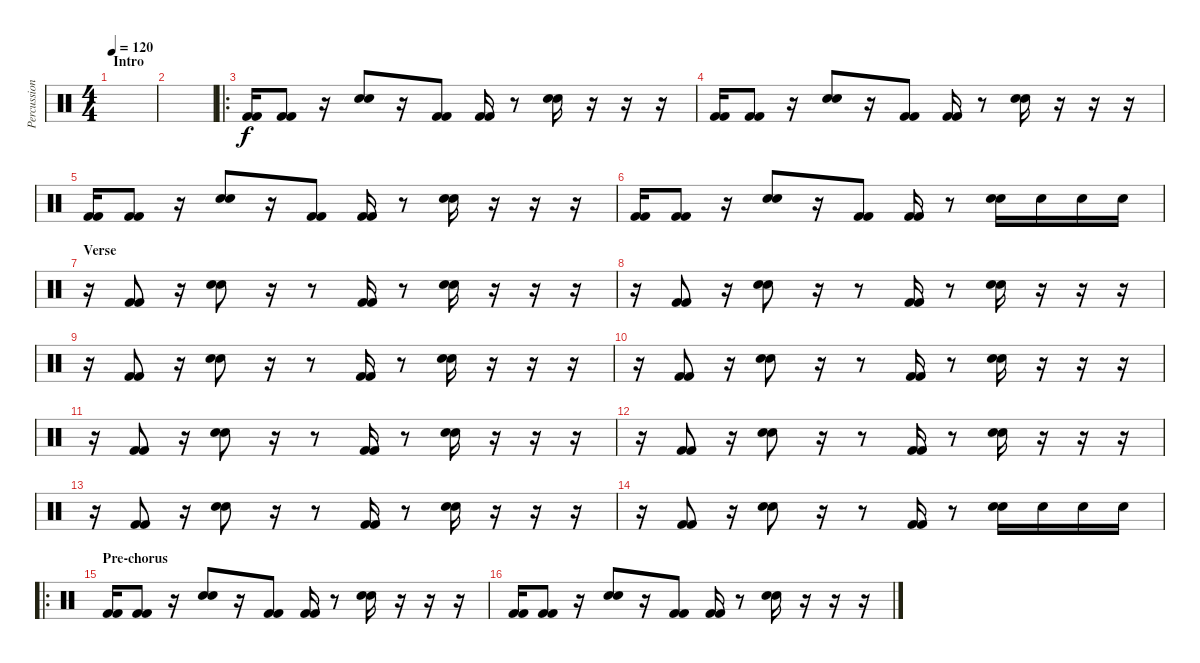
\track ("Percussion" "Percussion") {instrument percussion}
\staff {score}
\articulation defaults
\ts (4 4)
\section ("" "Intro")
\tempo 120
\clef neutral
\ks c
|
|
\ro
("Kick (hit) 2" "Kick (hit) 2").16 ("Kick (hit) 2" "Kick (hit) 2").8 r.16 ("Electric Snare (hit)" "Electric Snare (hit)").8 r.16 ("Kick (hit) 2" "Kick (hit) 2").8 ("Kick (hit) 2" "Kick (hit) 2").16 r.8 ("Electric Snare (hit)" "Electric Snare (hit)").16 r.16 r.16 r.16 |
("Kick (hit) 2" "Kick (hit) 2").16 ("Kick (hit) 2" "Kick (hit) 2").8 r.16 ("Electric Snare (hit)" "Electric Snare (hit)").8 r.16 ("Kick (hit) 2" "Kick (hit) 2").8 ("Kick (hit) 2" "Kick (hit) 2").16 r.8 ("Electric Snare (hit)" "Electric Snare (hit)").16 r.16 r.16 r.16 |
("Kick (hit) 2" "Kick (hit) 2").16 ("Kick (hit) 2" "Kick (hit) 2").8 r.16 ("Electric Snare (hit)" "Electric Snare (hit)").8 r.16 ("Kick (hit) 2" "Kick (hit) 2").8 ("Kick (hit) 2" "Kick (hit) 2").16 r.8 ("Electric Snare (hit)" "Electric Snare (hit)").16 r.16 r.16 r.16 |
("Kick (hit) 2" "Kick (hit) 2").16 ("Kick (hit) 2" "Kick (hit) 2").8 r.16 ("Electric Snare (hit)" "Electric Snare (hit)").8 r.16 ("Kick (hit) 2" "Kick (hit) 2").8 ("Kick (hit) 2" "Kick (hit) 2").16 r.8 ("Electric Snare (hit)" "Electric Snare (hit)").16 "Electric Snare (hit)".16 "Electric Snare (hit)".16 "Electric Snare (hit)".16 |
\section ("" "Verse")
r.16 ("Kick (hit) 2" "Kick (hit) 2").8 r.16 ("Electric Snare (hit)" "Electric Snare (hit)").8 r.16 r.8 ("Kick (hit) 2" "Kick (hit) 2").16 r.8 ("Electric Snare (hit)" "Electric Snare (hit)").16 r.16 r.16 r.16 |
r.16 ("Kick (hit) 2" "Kick (hit) 2").8 r.16 ("Electric Snare (hit)" "Electric Snare (hit)").8 r.16 r.8 ("Kick (hit) 2" "Kick (hit) 2").16 r.8 ("Electric Snare (hit)" "Electric Snare (hit)").16 r.16 r.16 r.16 |
r.16 ("Kick (hit) 2" "Kick (hit) 2").8 r.16 ("Electric Snare (hit)" "Electric Snare (hit)").8 r.16 r.8 ("Kick (hit) 2" "Kick (hit) 2").16 r.8 ("Electric Snare (hit)" "Electric Snare (hit)").16 r.16 r.16 r.16 |
r.16 ("Kick (hit) 2" "Kick (hit) 2").8 r.16 ("Electric Snare (hit)" "Electric Snare (hit)").8 r.16 r.8 ("Kick (hit) 2" "Kick (hit) 2").16 r.8 ("Electric Snare (hit)" "Electric Snare (hit)").16 r.16 r.16 r.16 |
r.16 ("Kick (hit) 2" "Kick (hit) 2").8 r.16 ("Electric Snare (hit)" "Electric Snare (hit)").8 r.16 r.8 ("Kick (hit) 2" "Kick (hit) 2").16 r.8 ("Electric Snare (hit)" "Electric Snare (hit)").16 r.16 r.16 r.16 |
r.16 ("Kick (hit) 2" "Kick (hit) 2").8 r.16 ("Electric Snare (hit)" "Electric Snare (hit)").8 r.16 r.8 ("Kick (hit) 2" "Kick (hit) 2").16 r.8 ("Electric Snare (hit)" "Electric Snare (hit)").16 r.16 r.16 r.16 |
r.16 ("Kick (hit) 2" "Kick (hit) 2").8 r.16 ("Electric Snare (hit)" "Electric Snare (hit)").8 r.16 r.8 ("Kick (hit) 2" "Kick (hit) 2").16 r.8 ("Electric Snare (hit)" "Electric Snare (hit)").16 r.16 r.16 r.16 |
r.16 ("Kick (hit) 2" "Kick (hit) 2").8 r.16 ("Electric Snare (hit)" "Electric Snare (hit)").8 r.16 r.8 ("Kick (hit) 2" "Kick (hit) 2").16 r.8 ("Electric Snare (hit)" "Electric Snare (hit)").16 "Electric Snare (hit)".16 "Electric Snare (hit)".16 "Electric Snare (hit)".16 |
\ro
\section ("" "Pre-chorus")
("Kick (hit) 2" "Kick (hit) 2").16 ("Kick (hit) 2" "Kick (hit) 2").8 r.16 ("Electric Snare (hit)" "Electric Snare (hit)").8 r.16 ("Kick (hit) 2" "Kick (hit) 2").8 ("Kick (hit) 2" "Kick (hit) 2").16 r.8 ("Electric Snare (hit)" "Electric Snare (hit)").16 r.16 r.16 r.16 |
("Kick (hit) 2" "Kick (hit) 2").16 ("Kick (hit) 2" "Kick (hit) 2").8 r.16 ("Electric Snare (hit)" "Electric Snare (hit)").8 r.16 ("Kick (hit) 2" "Kick (hit) 2").8 ("Kick (hit) 2" "Kick (hit) 2").16 r.8 ("Electric Snare (hit)" "Electric Snare (hit)").16 r.16 r.16 r.16
